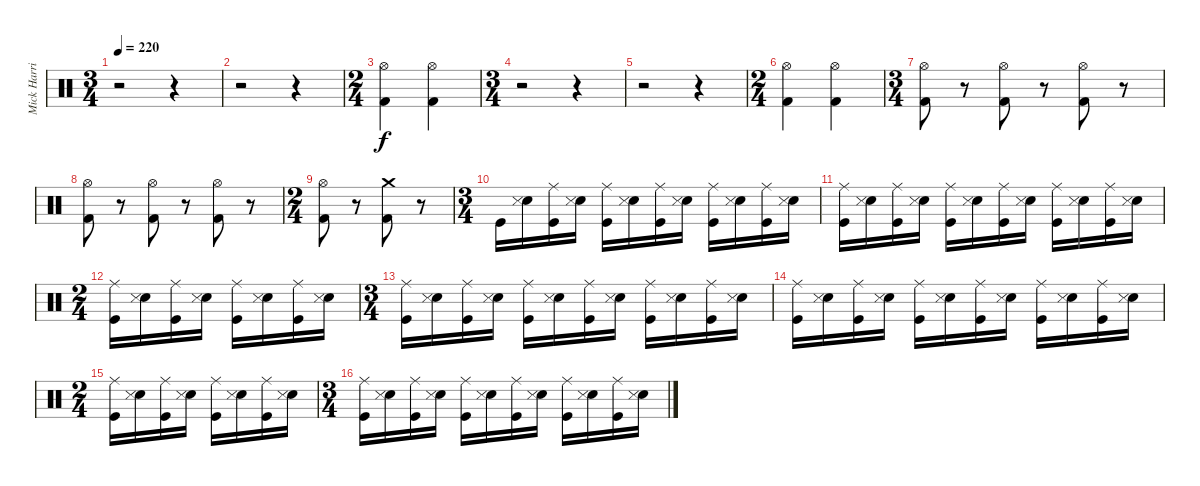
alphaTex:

\track ("Mick Harris (Drums)" "Mick Harri") {instrument percussion}
\staff {score}
\articulation defaults
\ts (3 4)
\tempo 220
\clef neutral
\ks c
r.2{dy f} r.4 |
r.2 r.4 |
\ts (2 4)
("Kick (hit) 2" "Hi-Hat (open)").4 ("Kick (hit) 2" "Hi-Hat (open)").4 |
\ts (3 4)
r.2 r.4 |
r.2 r.4 |
\ts (2 4)
("Kick (hit) 2" "Hi-Hat (open)").4 ("Kick (hit) 2" "Hi-Hat (open)").4 |
\ts (3 4)
("Kick (hit) 2" "Hi-Hat (open)").8 r.8{volume 0} ("Kick (hit) 2" "Hi-Hat (open)").8{volume 16} r.8{volume 0} ("Kick (hit) 2" "Hi-Hat (open)").8{volume 16} r.8{volume 0} |
("Kick (hit) 2" "Hi-Hat (open)").8{volume 16} r.8{volume 0} ("Kick (hit) 2" "Hi-Hat (open)").8{volume 16} r.8{volume 0} ("Kick (hit) 2" "Hi-Hat (open)").8{volume 16} r.8{volume 0} |
\ts (2 4)
("Kick (hit) 2" "Hi-Hat (open)").8{volume 16} r.8{volume 0} ("Kick (hit) 2" "Crash medium (hit)").8{volume 16} r.8 |
\ts (3 4)
"Kick (hit)".16 ("Electric Snare (hit)" "Snare (side stick) 3").16 ("Kick (hit)" "Ride (middle)").16 ("Electric Snare (hit)" "Snare (side stick) 3").16 ("Kick (hit)" "Ride (middle)").16 ("Electric Snare (hit)" "Snare (side stick) 3").16 ("Kick (hit)" "Ride (middle)").16 ("Electric Snare (hit)" "Snare (side stick) 3").16 ("Kick (hit)" "Ride (middle)").16 ("Electric Snare (hit)" "Snare (side stick) 3").16 ("Kick (hit)" "Ride (middle)").16 ("Electric Snare (hit)" "Snare (side stick) 3").16 |
("Kick (hit)" "Ride (middle)").16 ("Electric Snare (hit)" "Snare (side stick) 3").16 ("Kick (hit)" "Ride (middle)").16 ("Electric Snare (hit)" "Snare (side stick) 3").16 ("Kick (hit)" "Ride (middle)").16 ("Electric Snare (hit)" "Snare (side stick) 3").16 ("Kick (hit)" "Ride (middle)").16 ("Electric Snare (hit)" "Snare (side stick) 3").16 ("Kick (hit)" "Ride (middle)").16 ("Electric Snare (hit)" "Snare (side stick) 3").16 ("Kick (hit)" "Ride (middle)").16 ("Electric Snare (hit)" "Snare (side stick) 3").16 |
\ts (2 4)
("Kick (hit)" "Ride (middle)").16 ("Electric Snare (hit)" "Snare (side stick) 3").16 ("Kick (hit)" "Ride (middle)").16 ("Electric Snare (hit)" "Snare (side stick) 3").16 ("Kick (hit)" "Ride (middle)").16 ("Electric Snare (hit)" "Snare (side stick) 3").16 ("Kick (hit)" "Ride (middle)").16 ("Electric Snare (hit)" "Snare (side stick) 3").16 |
\ts (3 4)
("Kick (hit)" "Ride (middle)").16 ("Electric Snare (hit)" "Snare (side stick) 3").16 ("Kick (hit)" "Ride (middle)").16 ("Electric Snare (hit)" "Snare (side stick) 3").16 ("Kick (hit)" "Ride (middle)").16 ("Electric Snare (hit)" "Snare (side stick) 3").16 ("Kick (hit)" "Ride (middle)").16 ("Electric Snare (hit)" "Snare (side stick) 3").16 ("Kick (hit)" "Ride (middle)").16 ("Electric Snare (hit)" "Snare (side stick) 3").16 ("Kick (hit)" "Ride (middle)").16 ("Electric Snare (hit)" "Snare (side stick) 3").16 |
("Kick (hit)" "Ride (middle)").16 ("Electric Snare (hit)" "Snare (side stick) 3").16 ("Kick (hit)" "Ride (middle)").16 ("Electric Snare (hit)" "Snare (side stick) 3").16 ("Kick (hit)" "Ride (middle)").16 ("Electric Snare (hit)" "Snare (side stick) 3").16 ("Kick (hit)" "Ride (middle)").16 ("Electric Snare (hit)" "Snare (side stick) 3").16 ("Kick (hit)" "Ride (middle)").16 ("Electric Snare (hit)" "Snare (side stick) 3").16 ("Kick (hit)" "Ride (middle)").16 ("Electric Snare (hit)" "Snare (side stick) 3").16 |
\ts (2 4)
("Kick (hit)" "Ride (middle)").16 ("Electric Snare (hit)" "Snare (side stick) 3").16 ("Kick (hit)" "Ride (middle)").16 ("Electric Snare (hit)" "Snare (side stick) 3").16 ("Kick (hit)" "Ride (middle)").16 ("Electric Snare (hit)" "Snare (side stick) 3").16 ("Kick (hit)" "Ride (middle)").16 ("Electric Snare (hit)" "Snare (side stick) 3").16 |
\ts (3 4)
("Kick (hit)" "Ride (middle)").16 ("Electric Snare (hit)" "Snare (side stick) 3").16 ("Kick (hit)" "Ride (middle)").16 ("Electric Snare (hit)" "Snare (side stick) 3").16 ("Kick (hit)" "Ride (middle)").16 ("Electric Snare (hit)" "Snare (side stick) 3").16 ("Kick (hit)" "Ride (middle)").16 ("Electric Snare (hit)" "Snare (side stick) 3").16 ("Kick (hit)" "Ride (middle)").16 ("Electric Snare (hit)" "Snare (side stick) 3").16 ("Kick (hit)" "Ride (middle)").16 ("Electric Snare (hit)" "Snare (side stick) 3").16
